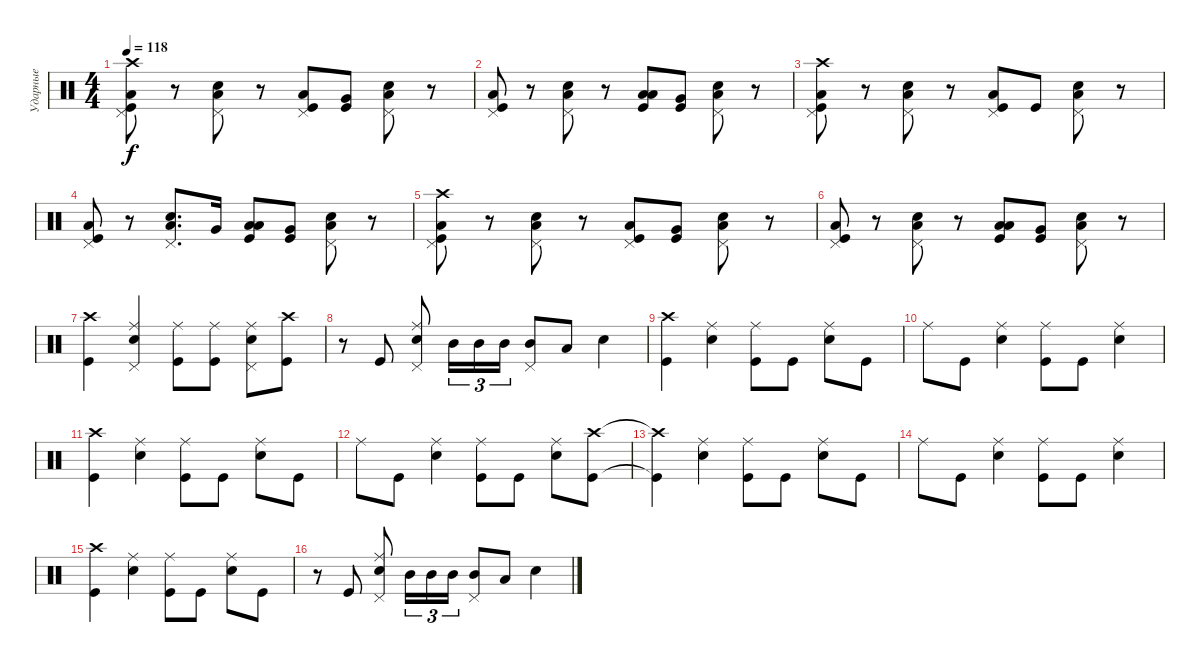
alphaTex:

\track ("Ударные" "Ударные") {instrument percussion}
\staff {score}
\articulation defaults
\ts (4 4)
\tempo 118
\clef neutral
\ks c
("Crash high (hit)" "Kick (hit)" "Low Floor Tom (hit)" "Pedal Hi-Hat (hit)").8{dy f} r.8 ("Snare (hit) 2" "Low Floor Tom (hit)" "Pedal Hi-Hat (hit)").8 r.8 ("Kick (hit)" "Low Floor Tom (hit)" "Pedal Hi-Hat (hit)").8 ("Kick (hit)" "Very Low Tom (hit)").8 ("Snare (hit) 2" "Low Floor Tom (hit)" "Pedal Hi-Hat (hit)").8 r.8 |
("Kick (hit)" "Low Floor Tom (hit)" "Pedal Hi-Hat (hit)").8 r.8 ("Snare (hit) 2" "Low Floor Tom (hit)" "Pedal Hi-Hat (hit)").8 r.8 ("Kick (hit)" "Low Floor Tom (hit)" "Low Tom (hit)").8 ("Kick (hit)" "Very Low Tom (hit)").8 ("Snare (hit) 2" "Low Floor Tom (hit)" "Pedal Hi-Hat (hit)").8 r.8 |
("Crash high (hit)" "Kick (hit)" "Low Floor Tom (hit)" "Pedal Hi-Hat (hit)").8 r.8 ("Snare (hit) 2" "Low Floor Tom (hit)" "Pedal Hi-Hat (hit)").8 r.8 ("Kick (hit)" "Low Floor Tom (hit)" "Pedal Hi-Hat (hit)").8 "Kick (hit)".8 ("Snare (hit) 2" "Low Floor Tom (hit)" "Pedal Hi-Hat (hit)").8 r.8 |
("Kick (hit)" "Low Floor Tom (hit)" "Pedal Hi-Hat (hit)").8 r.8 ("Snare (hit) 2" "Low Floor Tom (hit)" "Pedal Hi-Hat (hit)").8{d} "Very Low Tom (hit)".16 ("Kick (hit)" "Low Floor Tom (hit)" "Low Tom (hit)").8 ("Kick (hit)" "Very Low Tom (hit)").8 ("Snare (hit) 2" "Low Floor Tom (hit)" "Pedal Hi-Hat (hit)").8 r.8 |
("Crash high (hit)" "Kick (hit)" "Low Floor Tom (hit)" "Pedal Hi-Hat (hit)").8 r.8 ("Snare (hit) 2" "Low Floor Tom (hit)" "Pedal Hi-Hat (hit)").8 r.8 ("Kick (hit)" "Low Floor Tom (hit)" "Pedal Hi-Hat (hit)").8 ("Kick (hit)" "Very Low Tom (hit)").8 ("Snare (hit) 2" "Low Floor Tom (hit)" "Pedal Hi-Hat (hit)").8 r.8 |
("Kick (hit)" "Low Floor Tom (hit)" "Pedal Hi-Hat (hit)").8 r.8 ("Snare (hit) 2" "Low Floor Tom (hit)" "Pedal Hi-Hat (hit)").8 r.8 ("Kick (hit)" "Low Floor Tom (hit)" "Low Tom (hit)").8 ("Kick (hit)" "Very Low Tom (hit)").8 ("Snare (hit) 2" "Low Floor Tom (hit)" "Pedal Hi-Hat (hit)").8 r.8 |
("Crash high (hit)" "Kick (hit)").4 ("Ride (middle)" "Snare (hit) 2" "Pedal Hi-Hat (hit)").4 ("Ride (middle)" "Kick (hit)").8 ("Ride (middle)" "Kick (hit)").8 ("Ride (middle)" "Snare (hit) 2" "Pedal Hi-Hat (hit)").8 ("Crash high (hit)" "Kick (hit)").8 |
r.8 "Kick (hit)".8 ("Ride (middle)" "Snare (hit) 2" "Pedal Hi-Hat (hit)").8 "Mid Tom (hit)".16{tu (3 2)} "Mid Tom (hit)".16{tu (3 2)} "Mid Tom (hit)".16{tu (3 2)} ("Mid Tom (hit)" "Pedal Hi-Hat (hit)").8 "Low Tom (hit)".8 "Snare (hit) 2".4 |
("Crash high (hit)" "Kick (hit)").4 ("Ride (middle)" "Snare (hit) 2").4 ("Ride (middle)" "Kick (hit)").8 "Kick (hit)".8 ("Ride (middle)" "Snare (hit) 2").8 "Kick (hit)".8 |
"Ride (middle)".8 "Kick (hit)".8 ("Ride (middle)" "Snare (hit) 2").4 ("Ride (middle)" "Kick (hit)").8 "Kick (hit)".8 ("Ride (middle)" "Snare (hit) 2").4 |
("Crash high (hit)" "Kick (hit)").4 ("Ride (middle)" "Snare (hit) 2").4 ("Ride (middle)" "Kick (hit)").8 "Kick (hit)".8 ("Ride (middle)" "Snare (hit) 2").8 "Kick (hit)".8 |
"Ride (middle)".8 "Kick (hit)".8 ("Ride (middle)" "Snare (hit) 2").4 ("Ride (middle)" "Kick (hit)").8 "Kick (hit)".8 ("Ride (middle)" "Snare (hit) 2").8 ("Crash high (hit)" "Kick (hit)").8 |
("Crash high (hit)"{t} "Kick (hit)"{t}).4 ("Ride (middle)" "Snare (hit) 2").4 ("Ride (middle)" "Kick (hit)").8 "Kick (hit)".8 ("Ride (middle)" "Snare (hit) 2").8 "Kick (hit)".8 |
"Ride (middle)".8 "Kick (hit)".8 ("Ride (middle)" "Snare (hit) 2").4 ("Ride (middle)" "Kick (hit)").8 "Kick (hit)".8 ("Ride (middle)" "Snare (hit) 2").4 |
("Crash high (hit)" "Kick (hit)").4 ("Ride (middle)" "Snare (hit) 2").4 ("Ride (middle)" "Kick (hit)").8 "Kick (hit)".8 ("Ride (middle)" "Snare (hit) 2").8 "Kick (hit)".8 |
r.8 "Kick (hit)".8 ("Ride (middle)" "Snare (hit) 2" "Pedal Hi-Hat (hit)").8 "Mid Tom (hit)".16{tu (3 2)} "Mid Tom (hit)".16{tu (3 2)} "Mid Tom (hit)".16{tu (3 2)} ("Mid Tom (hit)" "Pedal Hi-Hat (hit)").8 "Low Tom (hit)".8 "Snare (hit) 2".4
